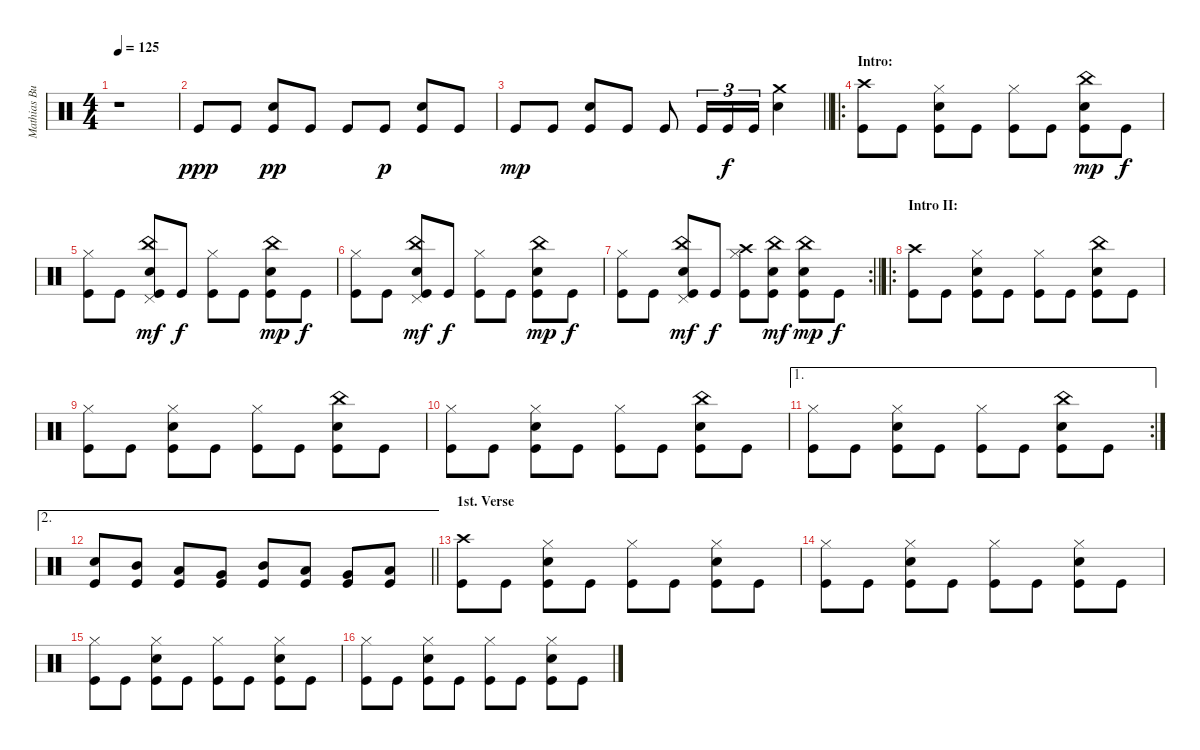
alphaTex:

\track ("Mathias Burchardt" "Mathias Bu") {instrument percussion}
\staff {score}
\articulation defaults
\ts (4 4)
\tempo 125
\clef neutral
\ks c
r.1{dy ppp} |
"Kick (hit)".8 "Kick (hit)".8 ("Electric Snare (hit)" "Kick (hit)").8{dy pp} "Kick (hit)".8 "Kick (hit)".8 "Kick (hit)".8{dy p} ("Electric Snare (hit)" "Kick (hit)").8 "Kick (hit)".8 |
\barLineRight lightlight "Kick (hit)".8{dy mp} "Kick (hit)".8
("Electric Snare (hit)" "Kick (hit)").8 "Kick (hit)".8 "Kick (hit)".8 "Kick (hit)".16{tu (3 2)} "Kick (hit)".16{tu (3 2) dy f} "Kick (hit)".16{tu (3 2)} ("Crash medium (hit)" "Snare (hit) 2").4 |
\ro
\section ("" "Intro:")
("Crash high (hit)" "Kick (hit)").8 "Kick (hit)".8 ("Hi-Hat (closed)" "Snare (hit) 2" "Kick (hit)").8 "Kick (hit)".8 ("Hi-Hat (closed)" "Kick (hit)").8 "Kick (hit)".8 ("China (hit)" "Snare (hit) 2" "Kick (hit)").8{dy mp} "Kick (hit)".8{dy f} |
("Hi-Hat (closed)" "Kick (hit)").8 "Kick (hit)".8 ("China (hit)" "Pedal Hi-Hat (hit)" "Snare (hit) 2" "Kick (hit)").8{dy mf} "Kick (hit)".8{dy f} ("Hi-Hat (closed)" "Kick (hit)").8 "Kick (hit)".8 ("China (hit)" "Snare (hit) 2" "Kick (hit)").8{dy mp} "Kick (hit)".8{dy f} |
("Hi-Hat (closed)" "Kick (hit)").8 "Kick (hit)".8 ("China (hit)" "Pedal Hi-Hat (hit)" "Snare (hit) 2" "Kick (hit)").8{dy mf} "Kick (hit)".8{dy f} ("Hi-Hat (closed)" "Kick (hit)").8 "Kick (hit)".8 ("China (hit)" "Snare (hit) 2" "Kick (hit)").8{dy mp} "Kick (hit)".8{dy f} |
\rc 2
\barLineRight lightlight
("Hi-Hat (closed)" "Kick (hit)").8 "Kick (hit)".8 ("China (hit)" "Pedal Hi-Hat (hit)" "Snare (hit) 2" "Kick (hit)").8{dy mf} "Kick (hit)".8{dy f} ("Crash high (hit)" "Hi-Hat (closed)" "Kick (hit)").8 ("China (hit)" "Snare (hit) 2" "Kick (hit)").8{dy mf} ("China (hit)" "Snare (hit) 2" "Kick (hit)").8{dy mp} "Kick (hit)".8{dy f} |
\ro
\section ("" "Intro II:")
("Crash high (hit)" "Kick (hit)").8 "Kick (hit)".8 ("Hi-Hat (closed)" "Snare (hit) 2" "Kick (hit)").8 "Kick (hit)".8 ("Hi-Hat (closed)" "Kick (hit)").8 "Kick (hit)".8 ("China (hit)" "Snare (hit) 2" "Kick (hit)").8 "Kick (hit)".8 |
("Hi-Hat (closed)" "Kick (hit)").8 "Kick (hit)".8 ("Hi-Hat (closed)" "Snare (hit) 2" "Kick (hit)").8 "Kick (hit)".8 ("Hi-Hat (closed)" "Kick (hit)").8 "Kick (hit)".8 ("China (hit)" "Snare (hit) 2" "Kick (hit)").8 "Kick (hit)".8 |
("Hi-Hat (closed)" "Kick (hit)").8 "Kick (hit)".8 ("Hi-Hat (closed)" "Snare (hit) 2" "Kick (hit)").8 "Kick (hit)".8 ("Hi-Hat (closed)" "Kick (hit)").8 "Kick (hit)".8 ("China (hit)" "Snare (hit) 2" "Kick (hit)").8 "Kick (hit)".8 |
\ae 1
\rc 2
("Hi-Hat (closed)" "Kick (hit)").8 "Kick (hit)".8 ("Hi-Hat (closed)" "Snare (hit) 2" "Kick (hit)").8 "Kick (hit)".8 ("Hi-Hat (closed)" "Kick (hit)").8 "Kick (hit)".8 ("China (hit)" "Snare (hit) 2" "Kick (hit)").8 "Kick (hit)".8 |
\ae 2
\barLineRight lightlight
("Snare (hit) 2" "Kick (hit)").8 ("Mid Tom (hit)" "Kick (hit)").8 ("Low Tom (hit)" "Kick (hit)").8 ("Very Low Tom (hit)" "Kick (hit)").8 ("Mid Tom (hit)" "Kick (hit)").8 ("Low Tom (hit)" "Kick (hit)").8 ("Very Low Tom (hit)" "Kick (hit)").8 ("Low Floor Tom (hit)" "Kick (hit)").8 |
\section ("" "1st. Verse")
("Crash high (hit)" "Kick (hit)").8 "Kick (hit)".8 ("Hi-Hat (closed)" "Snare (hit) 2" "Kick (hit)").8 "Kick (hit)".8 ("Hi-Hat (closed)" "Kick (hit)").8 "Kick (hit)".8 ("Hi-Hat (closed)" "Snare (hit) 2" "Kick (hit)").8 "Kick (hit)".8 |
("Hi-Hat (closed)" "Kick (hit)").8 "Kick (hit)".8 ("Hi-Hat (closed)" "Snare (hit) 2" "Kick (hit)").8 "Kick (hit)".8 ("Hi-Hat (closed)" "Kick (hit)").8 "Kick (hit)".8 ("Hi-Hat (closed)" "Snare (hit) 2" "Kick (hit)").8 "Kick (hit)".8 |
("Hi-Hat (closed)" "Kick (hit)").8 "Kick (hit)".8 ("Hi-Hat (closed)" "Snare (hit) 2" "Kick (hit)").8 "Kick (hit)".8 ("Hi-Hat (closed)" "Kick (hit)").8 "Kick (hit)".8 ("Hi-Hat (closed)" "Snare (hit) 2" "Kick (hit)").8 "Kick (hit)".8 |
("Hi-Hat (closed)" "Kick (hit)").8 "Kick (hit)".8 ("Hi-Hat (closed)" "Snare (hit) 2" "Kick (hit)").8 "Kick (hit)".8 ("Hi-Hat (closed)" "Kick (hit)").8 "Kick (hit)".8 ("Hi-Hat (closed)" "Snare (hit) 2" "Kick (hit)").8 "Kick (hit)".8
